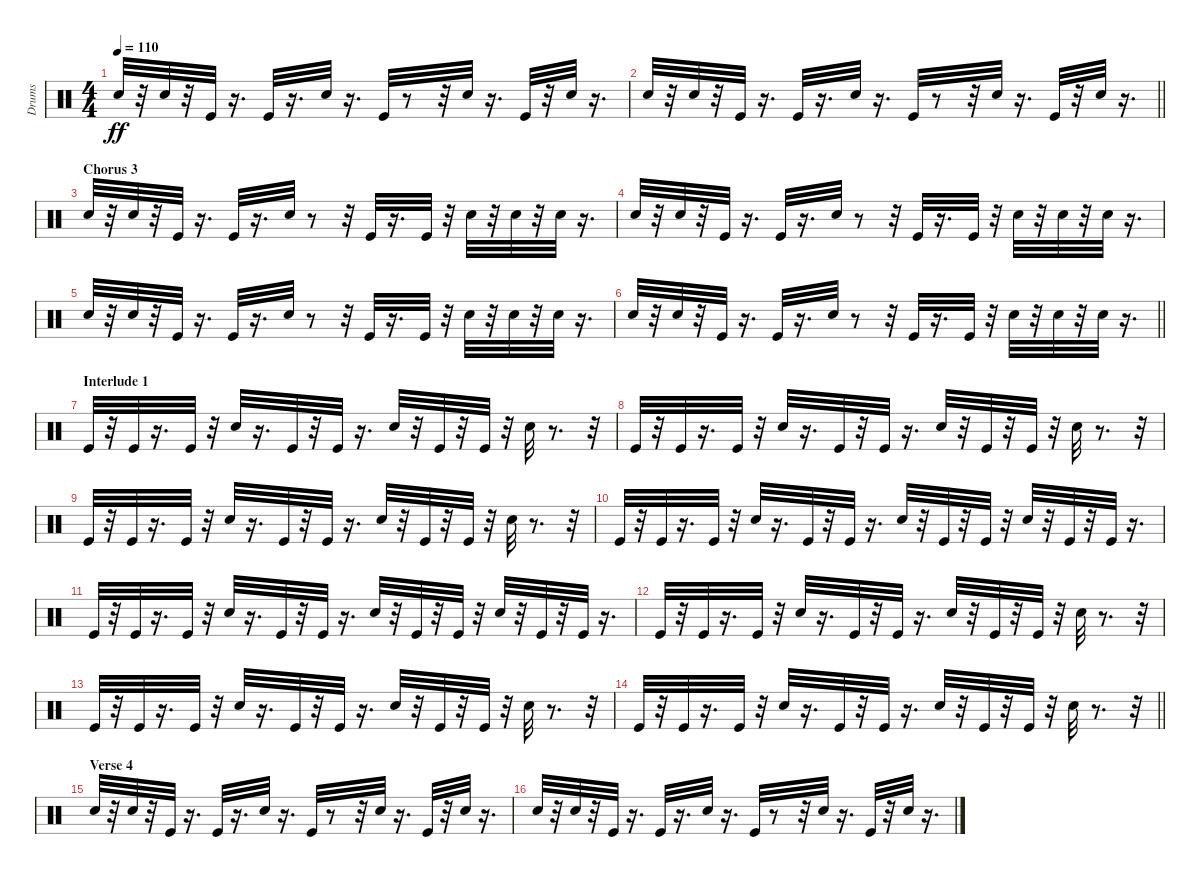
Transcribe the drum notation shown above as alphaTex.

\track ("Drums" "Drums") {instrument percussion}
\staff {score}
\articulation defaults
\ts (4 4)
\tempo 110
\clef neutral
\ks c "Snare (hit) 2".32{dy ff}
r.32 "Snare (hit) 2".32 r.32 "Kick (hit)".32 r.16{d} "Kick (hit)".32 r.16{d} "Snare (hit) 2".32 r.16{d} "Kick (hit)".32 r.8 r.32 "Snare (hit) 2".32 r.16{d} "Kick (hit)".32 r.32 "Snare (hit) 2".32 r.16{d} |
\barLineRight lightlight "Snare (hit) 2".32
r.32 "Snare (hit) 2".32 r.32 "Kick (hit)".32 r.16{d} "Kick (hit)".32 r.16{d} "Snare (hit) 2".32 r.16{d} "Kick (hit)".32 r.8 r.32 "Snare (hit) 2".32 r.16{d} "Kick (hit)".32 r.32 "Snare (hit) 2".32 r.16{d} |
\section ("" "Chorus 3")
"Snare (hit) 2".32 r.32 "Snare (hit) 2".32 r.32 "Kick (hit)".32 r.16{d} "Kick (hit)".32 r.16{d} "Snare (hit) 2".32 r.8 r.32 "Kick (hit)".32 r.16{d} "Kick (hit)".32 r.32 "Snare (hit) 2".32 r.32 "Snare (hit) 2".32 r.32 "Snare (hit) 2".32 r.16{d} |
"Snare (hit) 2".32 r.32 "Snare (hit) 2".32 r.32 "Kick (hit)".32 r.16{d} "Kick (hit)".32 r.16{d} "Snare (hit) 2".32 r.8 r.32 "Kick (hit)".32 r.16{d} "Kick (hit)".32 r.32 "Snare (hit) 2".32 r.32 "Snare (hit) 2".32 r.32 "Snare (hit) 2".32 r.16{d} |
"Snare (hit) 2".32 r.32 "Snare (hit) 2".32 r.32 "Kick (hit)".32 r.16{d} "Kick (hit)".32 r.16{d} "Snare (hit) 2".32 r.8 r.32 "Kick (hit)".32 r.16{d} "Kick (hit)".32 r.32 "Snare (hit) 2".32 r.32 "Snare (hit) 2".32 r.32 "Snare (hit) 2".32 r.16{d} |
\barLineRight lightlight "Snare (hit) 2".32
r.32 "Snare (hit) 2".32 r.32 "Kick (hit)".32 r.16{d} "Kick (hit)".32 r.16{d} "Snare (hit) 2".32 r.8 r.32 "Kick (hit)".32 r.16{d} "Kick (hit)".32 r.32 "Snare (hit) 2".32 r.32 "Snare (hit) 2".32 r.32 "Snare (hit) 2".32 r.16{d} |
\section ("" "Interlude 1")
"Kick (hit)".32 r.32 "Kick (hit)".32 r.16{d} "Kick (hit)".32 r.32 "Snare (hit) 2".32 r.16{d} "Kick (hit)".32 r.32 "Kick (hit)".32 r.16{d} "Snare (hit) 2".32 r.32 "Kick (hit)".32 r.32 "Kick (hit)".32 r.32 "Snare (hit) 2".32 r.8{d} r.32 |
"Kick (hit)".32 r.32 "Kick (hit)".32 r.16{d} "Kick (hit)".32 r.32 "Snare (hit) 2".32 r.16{d} "Kick (hit)".32 r.32 "Kick (hit)".32 r.16{d} "Snare (hit) 2".32 r.32 "Kick (hit)".32 r.32 "Kick (hit)".32 r.32 "Snare (hit) 2".32 r.8{d} r.32 |
"Kick (hit)".32 r.32 "Kick (hit)".32 r.16{d} "Kick (hit)".32 r.32 "Snare (hit) 2".32 r.16{d} "Kick (hit)".32 r.32 "Kick (hit)".32 r.16{d} "Snare (hit) 2".32 r.32 "Kick (hit)".32 r.32 "Kick (hit)".32 r.32 "Snare (hit) 2".32 r.8{d} r.32 |
"Kick (hit)".32 r.32 "Kick (hit)".32 r.16{d} "Kick (hit)".32 r.32 "Snare (hit) 2".32 r.16{d} "Kick (hit)".32 r.32 "Kick (hit)".32 r.16{d} "Snare (hit) 2".32 r.32 "Kick (hit)".32 r.32 "Kick (hit)".32 r.32 "Snare (hit) 2".32 r.32 "Kick (hit)".32 r.32 "Kick (hit)".32 r.16{d} |
"Kick (hit)".32 r.32 "Kick (hit)".32 r.16{d} "Kick (hit)".32 r.32 "Snare (hit) 2".32 r.16{d} "Kick (hit)".32 r.32 "Kick (hit)".32 r.16{d} "Snare (hit) 2".32 r.32 "Kick (hit)".32 r.32 "Kick (hit)".32 r.32 "Snare (hit) 2".32 r.32 "Kick (hit)".32 r.32 "Kick (hit)".32 r.16{d} |
"Kick (hit)".32 r.32 "Kick (hit)".32 r.16{d} "Kick (hit)".32 r.32 "Snare (hit) 2".32 r.16{d} "Kick (hit)".32 r.32 "Kick (hit)".32 r.16{d} "Snare (hit) 2".32 r.32 "Kick (hit)".32 r.32 "Kick (hit)".32 r.32 "Snare (hit) 2".32 r.8{d} r.32 |
"Kick (hit)".32 r.32 "Kick (hit)".32 r.16{d} "Kick (hit)".32 r.32 "Snare (hit) 2".32 r.16{d} "Kick (hit)".32 r.32 "Kick (hit)".32 r.16{d} "Snare (hit) 2".32 r.32 "Kick (hit)".32 r.32 "Kick (hit)".32 r.32 "Snare (hit) 2".32 r.8{d} r.32 |
\barLineRight lightlight "Kick (hit)".32
r.32 "Kick (hit)".32 r.16{d} "Kick (hit)".32 r.32 "Snare (hit) 2".32 r.16{d} "Kick (hit)".32 r.32 "Kick (hit)".32 r.16{d} "Snare (hit) 2".32 r.32 "Kick (hit)".32 r.32 "Kick (hit)".32 r.32 "Snare (hit) 2".32 r.8{d} r.32 |
\section ("" "Verse 4")
"Snare (hit) 2".32 r.32 "Snare (hit) 2".32 r.32 "Kick (hit)".32 r.16{d} "Kick (hit)".32 r.16{d} "Snare (hit) 2".32 r.16{d} "Kick (hit)".32 r.8 r.32 "Snare (hit) 2".32 r.16{d} "Kick (hit)".32 r.32 "Snare (hit) 2".32 r.16{d} |
"Snare (hit) 2".32 r.32 "Snare (hit) 2".32 r.32 "Kick (hit)".32 r.16{d} "Kick (hit)".32 r.16{d} "Snare (hit) 2".32 r.16{d} "Kick (hit)".32 r.8 r.32 "Snare (hit) 2".32 r.16{d} "Kick (hit)".32 r.32 "Snare (hit) 2".32 r.16{d}
